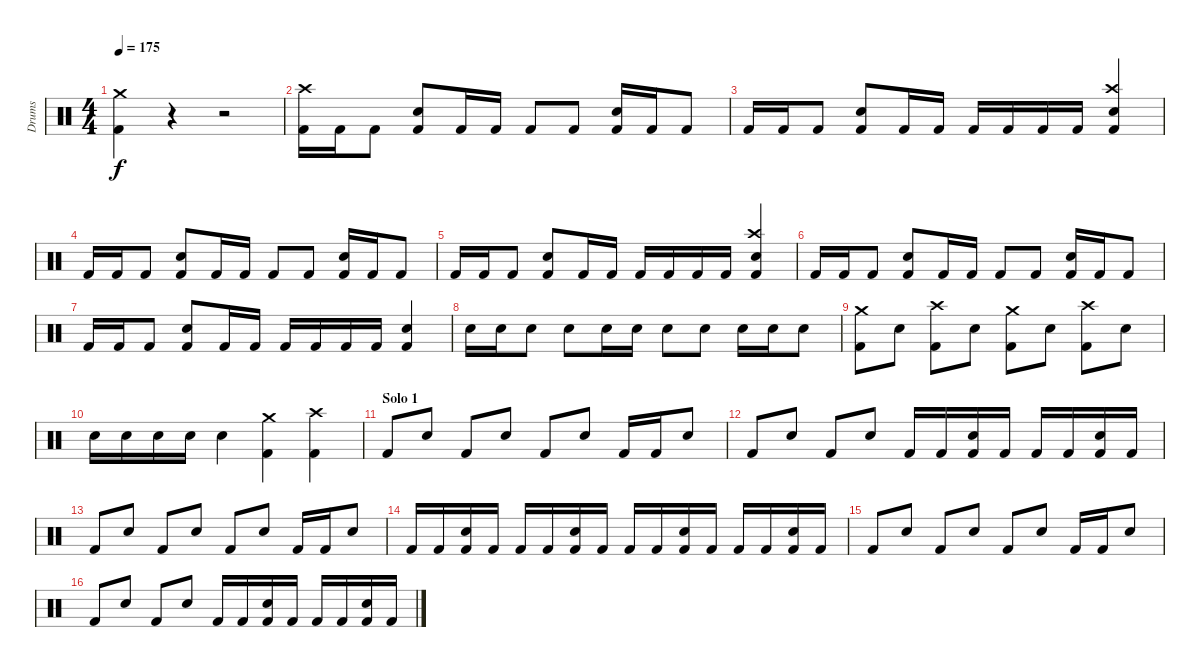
\track ("Drums" "Drums") {instrument percussion}
\staff {score}
\articulation defaults
\ts (4 4)
\tempo 175
\clef neutral
\ks c
("Kick (hit) 2" "Crash medium (hit)").4{dy f} r.4 r.2 |
("Kick (hit) 2" "Crash high (hit)").16 "Kick (hit) 2".16 "Kick (hit) 2".8 ("Kick (hit) 2" "Electric Snare (hit)").8 "Kick (hit) 2".16 "Kick (hit) 2".16 "Kick (hit) 2".8 "Kick (hit) 2".8 ("Kick (hit) 2" "Electric Snare (hit)").16 "Kick (hit) 2".16 "Kick (hit) 2".8 |
"Kick (hit) 2".16 "Kick (hit) 2".16 "Kick (hit) 2".8 ("Kick (hit) 2" "Electric Snare (hit)").8 "Kick (hit) 2".16 "Kick (hit) 2".16 "Kick (hit) 2".16 "Kick (hit) 2".16 "Kick (hit) 2".16 "Kick (hit) 2".16 ("Kick (hit) 2" "Electric Snare (hit)" "Crash high (hit)").4 |
"Kick (hit) 2".16 "Kick (hit) 2".16 "Kick (hit) 2".8 ("Kick (hit) 2" "Electric Snare (hit)").8 "Kick (hit) 2".16 "Kick (hit) 2".16 "Kick (hit) 2".8 "Kick (hit) 2".8 ("Kick (hit) 2" "Electric Snare (hit)").16 "Kick (hit) 2".16 "Kick (hit) 2".8 |
"Kick (hit) 2".16 "Kick (hit) 2".16 "Kick (hit) 2".8 ("Kick (hit) 2" "Electric Snare (hit)").8 "Kick (hit) 2".16 "Kick (hit) 2".16 "Kick (hit) 2".16 "Kick (hit) 2".16 "Kick (hit) 2".16 "Kick (hit) 2".16 ("Kick (hit) 2" "Electric Snare (hit)" "Crash high (hit)").4 |
"Kick (hit) 2".16 "Kick (hit) 2".16 "Kick (hit) 2".8 ("Kick (hit) 2" "Electric Snare (hit)").8 "Kick (hit) 2".16 "Kick (hit) 2".16 "Kick (hit) 2".8 "Kick (hit) 2".8 ("Kick (hit) 2" "Electric Snare (hit)").16 "Kick (hit) 2".16 "Kick (hit) 2".8 |
"Kick (hit) 2".16 "Kick (hit) 2".16 "Kick (hit) 2".8 ("Kick (hit) 2" "Electric Snare (hit)").8 "Kick (hit) 2".16 "Kick (hit) 2".16 "Kick (hit) 2".16 "Kick (hit) 2".16 "Kick (hit) 2".16 "Kick (hit) 2".16 ("Kick (hit) 2" "Electric Snare (hit)").4 |
"Electric Snare (hit)".16 "Electric Snare (hit)".16 "Electric Snare (hit)".8 "Electric Snare (hit)".8 "Electric Snare (hit)".16 "Electric Snare (hit)".16 "Electric Snare (hit)".8 "Electric Snare (hit)".8 "Electric Snare (hit)".16 "Electric Snare (hit)".16 "Electric Snare (hit)".8 |
("Kick (hit) 2" "Crash medium (hit)").8 "Electric Snare (hit)".8 ("Kick (hit) 2" "Crash high (hit)").8 "Electric Snare (hit)".8 ("Kick (hit) 2" "Crash medium (hit)").8 "Electric Snare (hit)".8 ("Kick (hit) 2" "Crash high (hit)").8 "Electric Snare (hit)".8 |
"Electric Snare (hit)".16 "Electric Snare (hit)".16 "Electric Snare (hit)".16 "Electric Snare (hit)".16 "Electric Snare (hit)".4 ("Kick (hit) 2" "Crash medium (hit)").4 ("Kick (hit) 2" "Crash high (hit)").4 |
\section ("" "Solo 1")
"Kick (hit) 2".8 "Electric Snare (hit)".8 "Kick (hit) 2".8 "Electric Snare (hit)".8 "Kick (hit) 2".8 "Electric Snare (hit)".8 "Kick (hit) 2".16 "Kick (hit) 2".16 "Electric Snare (hit)".8 |
"Kick (hit) 2".8 "Electric Snare (hit)".8 "Kick (hit) 2".8 "Electric Snare (hit)".8 "Kick (hit) 2".16 "Kick (hit) 2".16 ("Kick (hit) 2" "Electric Snare (hit)").16 "Kick (hit) 2".16 "Kick (hit) 2".16 "Kick (hit) 2".16 ("Kick (hit) 2" "Electric Snare (hit)").16 "Kick (hit) 2".16 |
"Kick (hit) 2".8 "Electric Snare (hit)".8 "Kick (hit) 2".8 "Electric Snare (hit)".8 "Kick (hit) 2".8 "Electric Snare (hit)".8 "Kick (hit) 2".16 "Kick (hit) 2".16 "Electric Snare (hit)".8 |
"Kick (hit) 2".16 "Kick (hit) 2".16 ("Kick (hit) 2" "Electric Snare (hit)").16 "Kick (hit) 2".16 "Kick (hit) 2".16 "Kick (hit) 2".16 ("Kick (hit) 2" "Electric Snare (hit)").16 "Kick (hit) 2".16 "Kick (hit) 2".16 "Kick (hit) 2".16 ("Kick (hit) 2" "Electric Snare (hit)").16 "Kick (hit) 2".16 "Kick (hit) 2".16 "Kick (hit) 2".16 ("Kick (hit) 2" "Electric Snare (hit)").16 "Kick (hit) 2".16 |
"Kick (hit) 2".8 "Electric Snare (hit)".8 "Kick (hit) 2".8 "Electric Snare (hit)".8 "Kick (hit) 2".8 "Electric Snare (hit)".8 "Kick (hit) 2".16 "Kick (hit) 2".16 "Electric Snare (hit)".8 |
"Kick (hit) 2".8 "Electric Snare (hit)".8 "Kick (hit) 2".8 "Electric Snare (hit)".8 "Kick (hit) 2".16 "Kick (hit) 2".16 ("Kick (hit) 2" "Electric Snare (hit)").16 "Kick (hit) 2".16 "Kick (hit) 2".16 "Kick (hit) 2".16 ("Kick (hit) 2" "Electric Snare (hit)").16 "Kick (hit) 2".16
